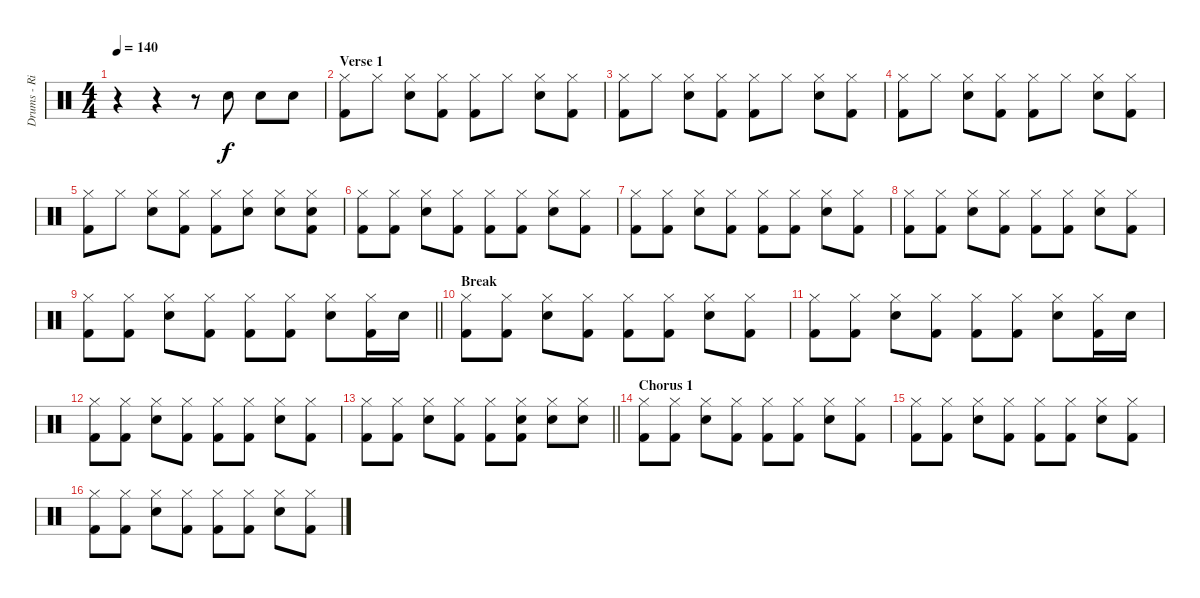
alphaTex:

\track ("Drums - Richard Thomas" "Drums - Ri") {instrument percussion}
\staff {score}
\articulation defaults
\ts (4 4)
\tempo 140
\clef neutral
\ks c
r.4{dy f} r.4 r.8 "Electric Snare (hit)".8 "Electric Snare (hit)".8 "Electric Snare (hit)".8 |
\section ("" "Verse 1")
("Kick (hit) 2" "Hi-Hat (closed)").8 "Hi-Hat (closed)".8 ("Electric Snare (hit)" "Hi-Hat (closed)").8 ("Kick (hit) 2" "Hi-Hat (closed)").8 ("Kick (hit) 2" "Hi-Hat (closed)").8 "Hi-Hat (closed)".8 ("Electric Snare (hit)" "Hi-Hat (closed)").8 ("Kick (hit) 2" "Hi-Hat (closed)").8 |
("Kick (hit) 2" "Hi-Hat (closed)").8 "Hi-Hat (closed)".8 ("Electric Snare (hit)" "Hi-Hat (closed)").8 ("Kick (hit) 2" "Hi-Hat (closed)").8 ("Kick (hit) 2" "Hi-Hat (closed)").8 "Hi-Hat (closed)".8 ("Electric Snare (hit)" "Hi-Hat (closed)").8 ("Kick (hit) 2" "Hi-Hat (closed)").8 |
("Kick (hit) 2" "Hi-Hat (closed)").8 "Hi-Hat (closed)".8 ("Electric Snare (hit)" "Hi-Hat (closed)").8 ("Kick (hit) 2" "Hi-Hat (closed)").8 ("Kick (hit) 2" "Hi-Hat (closed)").8 "Hi-Hat (closed)".8 ("Electric Snare (hit)" "Hi-Hat (closed)").8 ("Kick (hit) 2" "Hi-Hat (closed)").8 |
("Kick (hit) 2" "Hi-Hat (closed)").8 "Hi-Hat (closed)".8 ("Electric Snare (hit)" "Hi-Hat (closed)").8 ("Kick (hit) 2" "Hi-Hat (closed)").8 ("Kick (hit) 2" "Hi-Hat (closed)").8 ("Electric Snare (hit)" "Hi-Hat (closed)").8 ("Electric Snare (hit)" "Hi-Hat (closed)").8 ("Electric Snare (hit)" "Kick (hit) 2" "Hi-Hat (closed)").8 |
("Kick (hit) 2" "Hi-Hat (closed)").8 ("Kick (hit) 2" "Hi-Hat (closed)").8 ("Electric Snare (hit)" "Hi-Hat (closed)").8 ("Kick (hit) 2" "Hi-Hat (closed)").8 ("Kick (hit) 2" "Hi-Hat (closed)").8 ("Kick (hit) 2" "Hi-Hat (closed)").8 ("Electric Snare (hit)" "Hi-Hat (closed)").8 ("Kick (hit) 2" "Hi-Hat (closed)").8 |
("Kick (hit) 2" "Hi-Hat (closed)").8 ("Kick (hit) 2" "Hi-Hat (closed)").8 ("Electric Snare (hit)" "Hi-Hat (closed)").8 ("Kick (hit) 2" "Hi-Hat (closed)").8 ("Kick (hit) 2" "Hi-Hat (closed)").8 ("Kick (hit) 2" "Hi-Hat (closed)").8 ("Electric Snare (hit)" "Hi-Hat (closed)").8 ("Kick (hit) 2" "Hi-Hat (closed)").8 |
("Kick (hit) 2" "Hi-Hat (closed)").8 ("Kick (hit) 2" "Hi-Hat (closed)").8 ("Electric Snare (hit)" "Hi-Hat (closed)").8 ("Kick (hit) 2" "Hi-Hat (closed)").8 ("Kick (hit) 2" "Hi-Hat (closed)").8 ("Kick (hit) 2" "Hi-Hat (closed)").8 ("Electric Snare (hit)" "Hi-Hat (closed)").8 ("Kick (hit) 2" "Hi-Hat (closed)").8 |
\barLineRight lightlight
("Kick (hit) 2" "Hi-Hat (closed)").8 ("Kick (hit) 2" "Hi-Hat (closed)").8 ("Electric Snare (hit)" "Hi-Hat (closed)").8 ("Kick (hit) 2" "Hi-Hat (closed)").8 ("Kick (hit) 2" "Hi-Hat (closed)").8 ("Kick (hit) 2" "Hi-Hat (closed)").8 ("Electric Snare (hit)" "Hi-Hat (closed)").8 ("Kick (hit) 2" "Hi-Hat (closed)").16 "Electric Snare (hit)".16 |
\section ("" "Break")
("Kick (hit) 2" "Hi-Hat (closed)").8 ("Kick (hit) 2" "Hi-Hat (closed)").8 ("Electric Snare (hit)" "Hi-Hat (closed)").8 ("Kick (hit) 2" "Hi-Hat (closed)").8 ("Kick (hit) 2" "Hi-Hat (closed)").8 ("Kick (hit) 2" "Hi-Hat (closed)").8 ("Electric Snare (hit)" "Hi-Hat (closed)").8 ("Kick (hit) 2" "Hi-Hat (closed)").8 |
("Kick (hit) 2" "Hi-Hat (closed)").8 ("Kick (hit) 2" "Hi-Hat (closed)").8 ("Electric Snare (hit)" "Hi-Hat (closed)").8 ("Kick (hit) 2" "Hi-Hat (closed)").8 ("Kick (hit) 2" "Hi-Hat (closed)").8 ("Kick (hit) 2" "Hi-Hat (closed)").8 ("Electric Snare (hit)" "Hi-Hat (closed)").8 ("Kick (hit) 2" "Hi-Hat (closed)").16 "Electric Snare (hit)".16 |
("Kick (hit) 2" "Hi-Hat (closed)").8 ("Kick (hit) 2" "Hi-Hat (closed)").8 ("Electric Snare (hit)" "Hi-Hat (closed)").8 ("Kick (hit) 2" "Hi-Hat (closed)").8 ("Kick (hit) 2" "Hi-Hat (closed)").8 ("Kick (hit) 2" "Hi-Hat (closed)").8 ("Electric Snare (hit)" "Hi-Hat (closed)").8 ("Kick (hit) 2" "Hi-Hat (closed)").8 |
\barLineRight lightlight
("Kick (hit) 2" "Hi-Hat (closed)").8 ("Kick (hit) 2" "Hi-Hat (closed)").8 ("Electric Snare (hit)" "Hi-Hat (closed)").8 ("Kick (hit) 2" "Hi-Hat (closed)").8 ("Kick (hit) 2" "Hi-Hat (closed)").8 ("Electric Snare (hit)" "Kick (hit) 2" "Hi-Hat (closed)").8 ("Electric Snare (hit)" "Hi-Hat (closed)").8 ("Electric Snare (hit)" "Hi-Hat (closed)").8 |
\section ("" "Chorus 1")
("Kick (hit) 2" "Hi-Hat (closed)").8 ("Kick (hit) 2" "Hi-Hat (closed)").8 ("Electric Snare (hit)" "Hi-Hat (closed)").8 ("Kick (hit) 2" "Hi-Hat (closed)").8 ("Kick (hit) 2" "Hi-Hat (closed)").8 ("Kick (hit) 2" "Hi-Hat (closed)").8 ("Electric Snare (hit)" "Hi-Hat (closed)").8 ("Kick (hit) 2" "Hi-Hat (closed)").8 |
("Kick (hit) 2" "Hi-Hat (closed)").8 ("Kick (hit) 2" "Hi-Hat (closed)").8 ("Electric Snare (hit)" "Hi-Hat (closed)").8 ("Kick (hit) 2" "Hi-Hat (closed)").8 ("Kick (hit) 2" "Hi-Hat (closed)").8 ("Kick (hit) 2" "Hi-Hat (closed)").8 ("Electric Snare (hit)" "Hi-Hat (closed)").8 ("Kick (hit) 2" "Hi-Hat (closed)").8 |
("Kick (hit) 2" "Hi-Hat (closed)").8 ("Kick (hit) 2" "Hi-Hat (closed)").8 ("Electric Snare (hit)" "Hi-Hat (closed)").8 ("Kick (hit) 2" "Hi-Hat (closed)").8 ("Kick (hit) 2" "Hi-Hat (closed)").8 ("Kick (hit) 2" "Hi-Hat (closed)").8 ("Electric Snare (hit)" "Hi-Hat (closed)").8 ("Kick (hit) 2" "Hi-Hat (closed)").8
